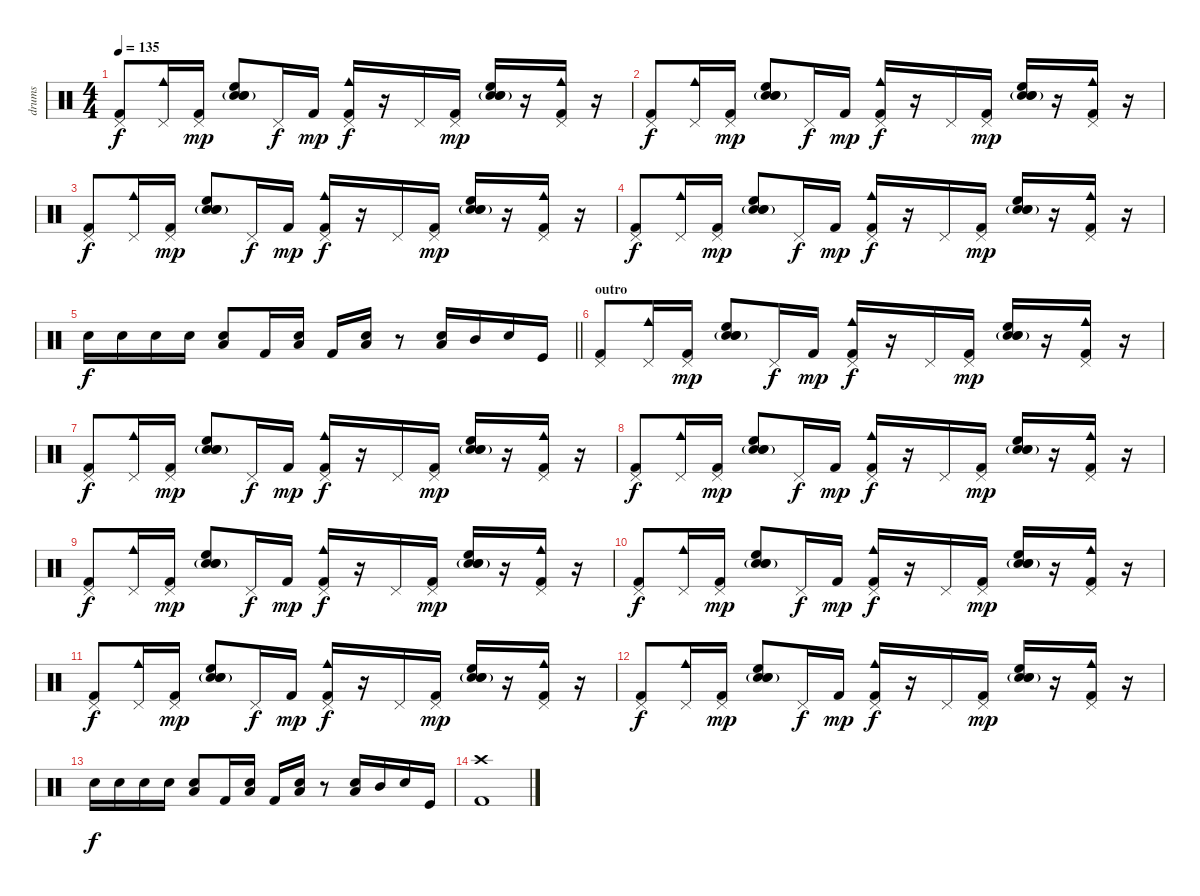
\track ("drums" "drums") {instrument percussion}
\staff {score}
\articulation defaults
\ts (4 4)
\tempo 135
\clef neutral
\ks c
("Pedal Hi-Hat (hit)" "Kick (hit) 2").8{dy f} ("Cowbell medium (hit)" "Pedal Hi-Hat (hit)").16 ("Pedal Hi-Hat (hit)" "Kick (hit) 2").16{dy mp} ("Snare (hit) 2"{g} "Hand Clap (hit)"{g} "High Floor Tom (hit)" "Snare (hit) 2").8 "Pedal Hi-Hat (hit)".16{dy f} "Kick (hit) 2".16{dy mp} ("Cowbell medium (hit)" "Pedal Hi-Hat (hit)" "Kick (hit) 2").16{dy f} r.16 "Pedal Hi-Hat (hit)".16 ("Pedal Hi-Hat (hit)" "Kick (hit) 2").16{dy mp} ("Snare (hit) 2"{g} "Hand Clap (hit)"{g} "High Floor Tom (hit)" "Snare (hit) 2").16 r.16 ("Cowbell medium (hit)" "Pedal Hi-Hat (hit)" "Kick (hit) 2").16 r.16 |
("Pedal Hi-Hat (hit)" "Kick (hit) 2").8{dy f} ("Cowbell medium (hit)" "Pedal Hi-Hat (hit)").16 ("Pedal Hi-Hat (hit)" "Kick (hit) 2").16{dy mp} ("Snare (hit) 2"{g} "Hand Clap (hit)"{g} "High Floor Tom (hit)" "Snare (hit) 2").8 "Pedal Hi-Hat (hit)".16{dy f} "Kick (hit) 2".16{dy mp} ("Cowbell medium (hit)" "Pedal Hi-Hat (hit)" "Kick (hit) 2").16{dy f} r.16 "Pedal Hi-Hat (hit)".16 ("Pedal Hi-Hat (hit)" "Kick (hit) 2").16{dy mp} ("Snare (hit) 2"{g} "Hand Clap (hit)"{g} "High Floor Tom (hit)" "Snare (hit) 2").16 r.16 ("Cowbell medium (hit)" "Pedal Hi-Hat (hit)" "Kick (hit) 2").16 r.16 |
("Pedal Hi-Hat (hit)" "Kick (hit) 2").8{dy f} ("Cowbell medium (hit)" "Pedal Hi-Hat (hit)").16 ("Pedal Hi-Hat (hit)" "Kick (hit) 2").16{dy mp} ("Snare (hit) 2"{g} "Hand Clap (hit)"{g} "High Floor Tom (hit)" "Snare (hit) 2").8 "Pedal Hi-Hat (hit)".16{dy f} "Kick (hit) 2".16{dy mp} ("Cowbell medium (hit)" "Pedal Hi-Hat (hit)" "Kick (hit) 2").16{dy f} r.16 "Pedal Hi-Hat (hit)".16 ("Pedal Hi-Hat (hit)" "Kick (hit) 2").16{dy mp} ("Snare (hit) 2"{g} "Hand Clap (hit)"{g} "High Floor Tom (hit)" "Snare (hit) 2").16 r.16 ("Cowbell medium (hit)" "Pedal Hi-Hat (hit)" "Kick (hit) 2").16 r.16 |
("Pedal Hi-Hat (hit)" "Kick (hit) 2").8{dy f} ("Cowbell medium (hit)" "Pedal Hi-Hat (hit)").16 ("Pedal Hi-Hat (hit)" "Kick (hit) 2").16{dy mp} ("Snare (hit) 2"{g} "Hand Clap (hit)"{g} "High Floor Tom (hit)" "Snare (hit) 2").8 "Pedal Hi-Hat (hit)".16{dy f} "Kick (hit) 2".16{dy mp} ("Cowbell medium (hit)" "Pedal Hi-Hat (hit)" "Kick (hit) 2").16{dy f} r.16 "Pedal Hi-Hat (hit)".16 ("Pedal Hi-Hat (hit)" "Kick (hit) 2").16{dy mp} ("Snare (hit) 2"{g} "Hand Clap (hit)"{g} "High Floor Tom (hit)" "Snare (hit) 2").16 r.16 ("Cowbell medium (hit)" "Pedal Hi-Hat (hit)" "Kick (hit) 2").16 r.16 |
\barLineRight lightlight "Snare (hit) 2".16{dy f} "Snare (hit) 2".16 "Snare (hit) 2".16 "Snare (hit) 2".16
("Snare (hit) 2" "Low Tom (hit)").8{bd 60} "Kick (hit) 2".16 ("Snare (hit) 2" "Low Tom (hit)").16{bd 60} "Kick (hit) 2".16 ("Snare (hit) 2" "Low Tom (hit)").16{bd 60} r.8 ("Low Tom (hit)" "Snare (hit) 2").16{bu 60} "Mid Tom (hit)".16 "Snare (hit) 2".16 "Kick (hit)".16 |
\section ("" "outro")
("Pedal Hi-Hat (hit)" "Kick (hit) 2").8 ("Cowbell medium (hit)" "Pedal Hi-Hat (hit)").16 ("Pedal Hi-Hat (hit)" "Kick (hit) 2").16{dy mp} ("Snare (hit) 2"{g} "Hand Clap (hit)"{g} "High Floor Tom (hit)" "Snare (hit) 2").8 "Pedal Hi-Hat (hit)".16{dy f} "Kick (hit) 2".16{dy mp} ("Cowbell medium (hit)" "Pedal Hi-Hat (hit)" "Kick (hit) 2").16{dy f} r.16 "Pedal Hi-Hat (hit)".16 ("Pedal Hi-Hat (hit)" "Kick (hit) 2").16{dy mp} ("Snare (hit) 2"{g} "Hand Clap (hit)"{g} "High Floor Tom (hit)" "Snare (hit) 2").16 r.16 ("Cowbell medium (hit)" "Pedal Hi-Hat (hit)" "Kick (hit) 2").16 r.16 |
("Pedal Hi-Hat (hit)" "Kick (hit) 2").8{dy f} ("Cowbell medium (hit)" "Pedal Hi-Hat (hit)").16 ("Pedal Hi-Hat (hit)" "Kick (hit) 2").16{dy mp} ("Snare (hit) 2"{g} "Hand Clap (hit)"{g} "High Floor Tom (hit)" "Snare (hit) 2").8 "Pedal Hi-Hat (hit)".16{dy f} "Kick (hit) 2".16{dy mp} ("Cowbell medium (hit)" "Pedal Hi-Hat (hit)" "Kick (hit) 2").16{dy f} r.16 "Pedal Hi-Hat (hit)".16 ("Pedal Hi-Hat (hit)" "Kick (hit) 2").16{dy mp} ("Snare (hit) 2"{g} "Hand Clap (hit)"{g} "High Floor Tom (hit)" "Snare (hit) 2").16 r.16 ("Cowbell medium (hit)" "Pedal Hi-Hat (hit)" "Kick (hit) 2").16 r.16 |
("Pedal Hi-Hat (hit)" "Kick (hit) 2").8{dy f} ("Cowbell medium (hit)" "Pedal Hi-Hat (hit)").16 ("Pedal Hi-Hat (hit)" "Kick (hit) 2").16{dy mp} ("Snare (hit) 2"{g} "Hand Clap (hit)"{g} "High Floor Tom (hit)" "Snare (hit) 2").8 "Pedal Hi-Hat (hit)".16{dy f} "Kick (hit) 2".16{dy mp} ("Cowbell medium (hit)" "Pedal Hi-Hat (hit)" "Kick (hit) 2").16{dy f} r.16 "Pedal Hi-Hat (hit)".16 ("Pedal Hi-Hat (hit)" "Kick (hit) 2").16{dy mp} ("Snare (hit) 2"{g} "Hand Clap (hit)"{g} "High Floor Tom (hit)" "Snare (hit) 2").16 r.16 ("Cowbell medium (hit)" "Pedal Hi-Hat (hit)" "Kick (hit) 2").16 r.16 |
("Pedal Hi-Hat (hit)" "Kick (hit) 2").8{dy f} ("Cowbell medium (hit)" "Pedal Hi-Hat (hit)").16 ("Pedal Hi-Hat (hit)" "Kick (hit) 2").16{dy mp} ("Snare (hit) 2"{g} "Hand Clap (hit)"{g} "High Floor Tom (hit)" "Snare (hit) 2").8 "Pedal Hi-Hat (hit)".16{dy f} "Kick (hit) 2".16{dy mp} ("Cowbell medium (hit)" "Pedal Hi-Hat (hit)" "Kick (hit) 2").16{dy f} r.16 "Pedal Hi-Hat (hit)".16 ("Pedal Hi-Hat (hit)" "Kick (hit) 2").16{dy mp} ("Snare (hit) 2"{g} "Hand Clap (hit)"{g} "High Floor Tom (hit)" "Snare (hit) 2").16 r.16 ("Cowbell medium (hit)" "Pedal Hi-Hat (hit)" "Kick (hit) 2").16 r.16 |
("Pedal Hi-Hat (hit)" "Kick (hit) 2").8{dy f} ("Cowbell medium (hit)" "Pedal Hi-Hat (hit)").16 ("Pedal Hi-Hat (hit)" "Kick (hit) 2").16{dy mp} ("Snare (hit) 2"{g} "Hand Clap (hit)"{g} "High Floor Tom (hit)" "Snare (hit) 2").8 "Pedal Hi-Hat (hit)".16{dy f} "Kick (hit) 2".16{dy mp} ("Cowbell medium (hit)" "Pedal Hi-Hat (hit)" "Kick (hit) 2").16{dy f} r.16 "Pedal Hi-Hat (hit)".16 ("Pedal Hi-Hat (hit)" "Kick (hit) 2").16{dy mp} ("Snare (hit) 2"{g} "Hand Clap (hit)"{g} "High Floor Tom (hit)" "Snare (hit) 2").16 r.16 ("Cowbell medium (hit)" "Pedal Hi-Hat (hit)" "Kick (hit) 2").16 r.16 |
("Pedal Hi-Hat (hit)" "Kick (hit) 2").8{dy f} ("Cowbell medium (hit)" "Pedal Hi-Hat (hit)").16 ("Pedal Hi-Hat (hit)" "Kick (hit) 2").16{dy mp} ("Snare (hit) 2"{g} "Hand Clap (hit)"{g} "High Floor Tom (hit)" "Snare (hit) 2").8 "Pedal Hi-Hat (hit)".16{dy f} "Kick (hit) 2".16{dy mp} ("Cowbell medium (hit)" "Pedal Hi-Hat (hit)" "Kick (hit) 2").16{dy f} r.16 "Pedal Hi-Hat (hit)".16 ("Pedal Hi-Hat (hit)" "Kick (hit) 2").16{dy mp} ("Snare (hit) 2"{g} "Hand Clap (hit)"{g} "High Floor Tom (hit)" "Snare (hit) 2").16 r.16 ("Cowbell medium (hit)" "Pedal Hi-Hat (hit)" "Kick (hit) 2").16 r.16 |
("Pedal Hi-Hat (hit)" "Kick (hit) 2").8{dy f} ("Cowbell medium (hit)" "Pedal Hi-Hat (hit)").16 ("Pedal Hi-Hat (hit)" "Kick (hit) 2").16{dy mp} ("Snare (hit) 2"{g} "Hand Clap (hit)"{g} "High Floor Tom (hit)" "Snare (hit) 2").8 "Pedal Hi-Hat (hit)".16{dy f} "Kick (hit) 2".16{dy mp} ("Cowbell medium (hit)" "Pedal Hi-Hat (hit)" "Kick (hit) 2").16{dy f} r.16 "Pedal Hi-Hat (hit)".16 ("Pedal Hi-Hat (hit)" "Kick (hit) 2").16{dy mp} ("Snare (hit) 2"{g} "Hand Clap (hit)"{g} "High Floor Tom (hit)" "Snare (hit) 2").16 r.16 ("Cowbell medium (hit)" "Pedal Hi-Hat (hit)" "Kick (hit) 2").16 r.16 |
"Snare (hit) 2".16{dy f} "Snare (hit) 2".16 "Snare (hit) 2".16 "Snare (hit) 2".16 ("Snare (hit) 2" "Low Tom (hit)").8{bd 60} "Kick (hit) 2".16 ("Snare (hit) 2" "Low Tom (hit)").16{bd 60} "Kick (hit) 2".16 ("Snare (hit) 2" "Low Tom (hit)").16{bd 60} r.8 ("Low Tom (hit)" "Snare (hit) 2").16{bu 60} "Mid Tom (hit)".16 "Snare (hit) 2".16 "Kick (hit)".16 |
("Crash high (hit)" "Kick (hit) 2").1
